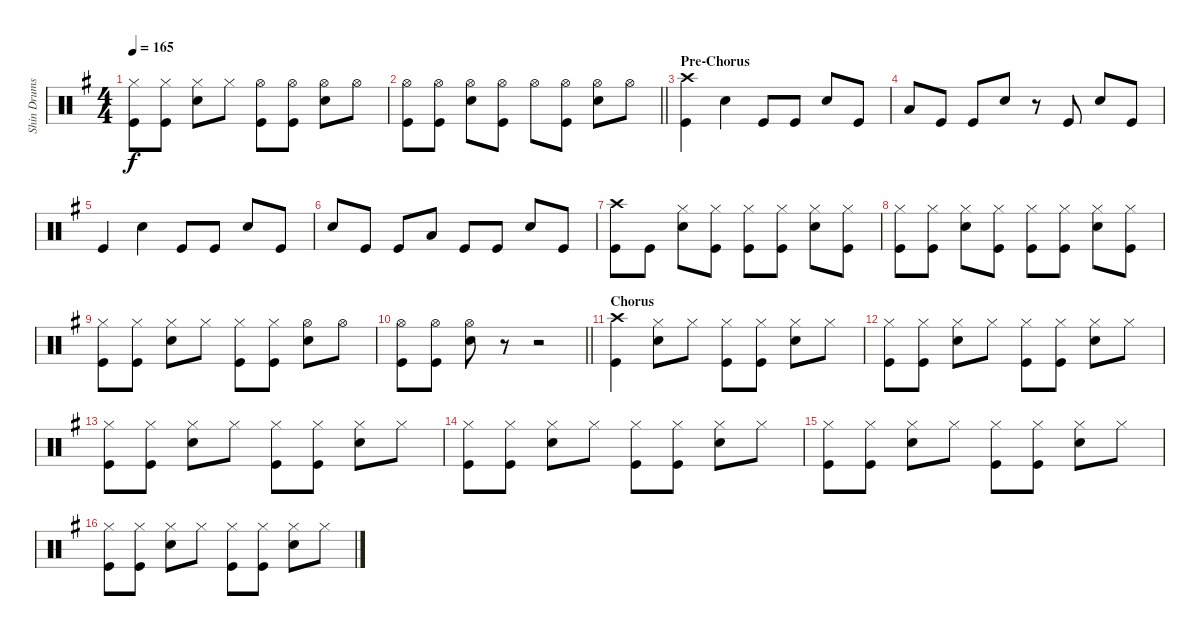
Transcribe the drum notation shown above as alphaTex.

\track ("Shin Drums" "Shin Drums") {instrument percussion}
\staff {score}
\articulation defaults
\ts (4 4)
\tempo 165
\clef neutral
\ks g
("Hi-Hat (closed)" "Kick (hit)").8{dy f} ("Hi-Hat (closed)" "Kick (hit)").8 ("Hi-Hat (closed)" "Snare (hit) 2").8 "Hi-Hat (closed)".8 ("Hi-Hat (open)" "Kick (hit)").8 ("Hi-Hat (open)" "Kick (hit)").8 ("Hi-Hat (open)" "Snare (hit) 2").8 "Hi-Hat (open)".8 |
\barLineRight lightlight
("Hi-Hat (open)" "Kick (hit)").8 ("Hi-Hat (open)" "Kick (hit)").8 ("Hi-Hat (open)" "Snare (hit) 2").8 ("Hi-Hat (open)" "Kick (hit)").8 "Hi-Hat (open)".8 ("Hi-Hat (open)" "Kick (hit)").8 ("Hi-Hat (open)" "Snare (hit) 2").8 "Hi-Hat (open)".8 |
\section ("" "Pre-Chorus")
("Crash high (hit)" "Kick (hit)").4 "Snare (hit) 2".4 "Kick (hit)".8 "Kick (hit)".8 "Snare (hit) 2".8 "Kick (hit)".8 |
"Low Tom (hit)".8 "Kick (hit)".8 "Kick (hit)".8 "Snare (hit) 2".8 r.8 "Kick (hit)".8 "Snare (hit) 2".8 "Kick (hit)".8 |
"Kick (hit)".4 "Snare (hit) 2".4 "Kick (hit)".8 "Kick (hit)".8 "Snare (hit) 2".8 "Kick (hit)".8 |
"Snare (hit) 2".8 "Kick (hit)".8 "Kick (hit)".8 "Low Tom (hit)".8 "Kick (hit)".8 "Kick (hit)".8 "Snare (hit) 2".8 "Kick (hit)".8 |
("Crash high (hit)" "Kick (hit)").8 "Kick (hit)".8 ("Hi-Hat (closed)" "Snare (hit) 2").8 ("Hi-Hat (closed)" "Kick (hit)").8 ("Hi-Hat (closed)" "Kick (hit)").8 ("Hi-Hat (closed)" "Kick (hit)").8 ("Hi-Hat (closed)" "Snare (hit) 2").8 ("Hi-Hat (closed)" "Kick (hit)").8 |
("Hi-Hat (closed)" "Kick (hit)").8 ("Hi-Hat (closed)" "Kick (hit)").8 ("Hi-Hat (closed)" "Snare (hit) 2").8 ("Hi-Hat (closed)" "Kick (hit)").8 ("Hi-Hat (closed)" "Kick (hit)").8 ("Hi-Hat (closed)" "Kick (hit)").8 ("Hi-Hat (closed)" "Snare (hit) 2").8 ("Hi-Hat (closed)" "Kick (hit)").8 |
("Hi-Hat (closed)" "Kick (hit)").8 ("Hi-Hat (closed)" "Kick (hit)").8 ("Hi-Hat (closed)" "Snare (hit) 2").8 "Hi-Hat (closed)".8 ("Hi-Hat (closed)" "Kick (hit)").8 ("Hi-Hat (closed)" "Kick (hit)").8 ("Hi-Hat (open)" "Snare (hit) 2").8 "Hi-Hat (open)".8 |
\barLineRight lightlight
("Hi-Hat (open)" "Kick (hit)").8 ("Hi-Hat (open)" "Kick (hit)").8 ("Hi-Hat (open)" "Snare (hit) 2").8 r.8 r.2 |
\section ("" "Chorus")
("Crash high (hit)" "Kick (hit)").4 ("Hi-Hat (closed)" "Snare (hit) 2").8 "Hi-Hat (closed)".8 ("Hi-Hat (closed)" "Kick (hit)").8 ("Hi-Hat (closed)" "Kick (hit)").8 ("Hi-Hat (closed)" "Snare (hit) 2").8 "Hi-Hat (closed)".8 |
("Hi-Hat (closed)" "Kick (hit)").8 ("Hi-Hat (closed)" "Kick (hit)").8 ("Hi-Hat (closed)" "Snare (hit) 2").8 "Hi-Hat (closed)".8 ("Hi-Hat (closed)" "Kick (hit)").8 ("Hi-Hat (closed)" "Kick (hit)").8 ("Hi-Hat (closed)" "Snare (hit) 2").8 "Hi-Hat (closed)".8 |
("Hi-Hat (closed)" "Kick (hit)").8 ("Hi-Hat (closed)" "Kick (hit)").8 ("Hi-Hat (closed)" "Snare (hit) 2").8 "Hi-Hat (closed)".8 ("Hi-Hat (closed)" "Kick (hit)").8 ("Hi-Hat (closed)" "Kick (hit)").8 ("Hi-Hat (closed)" "Snare (hit) 2").8 "Hi-Hat (closed)".8 |
("Hi-Hat (closed)" "Kick (hit)").8 ("Hi-Hat (closed)" "Kick (hit)").8 ("Hi-Hat (closed)" "Snare (hit) 2").8 "Hi-Hat (closed)".8 ("Hi-Hat (closed)" "Kick (hit)").8 ("Hi-Hat (closed)" "Kick (hit)").8 ("Hi-Hat (closed)" "Snare (hit) 2").8 "Hi-Hat (closed)".8 |
("Hi-Hat (closed)" "Kick (hit)").8 ("Hi-Hat (closed)" "Kick (hit)").8 ("Hi-Hat (closed)" "Snare (hit) 2").8 "Hi-Hat (closed)".8 ("Hi-Hat (closed)" "Kick (hit)").8 ("Hi-Hat (closed)" "Kick (hit)").8 ("Hi-Hat (closed)" "Snare (hit) 2").8 "Hi-Hat (closed)".8 |
("Hi-Hat (closed)" "Kick (hit)").8 ("Hi-Hat (closed)" "Kick (hit)").8 ("Hi-Hat (closed)" "Snare (hit) 2").8 "Hi-Hat (closed)".8 ("Hi-Hat (closed)" "Kick (hit)").8 ("Hi-Hat (closed)" "Kick (hit)").8 ("Hi-Hat (closed)" "Snare (hit) 2").8 "Hi-Hat (closed)".8
